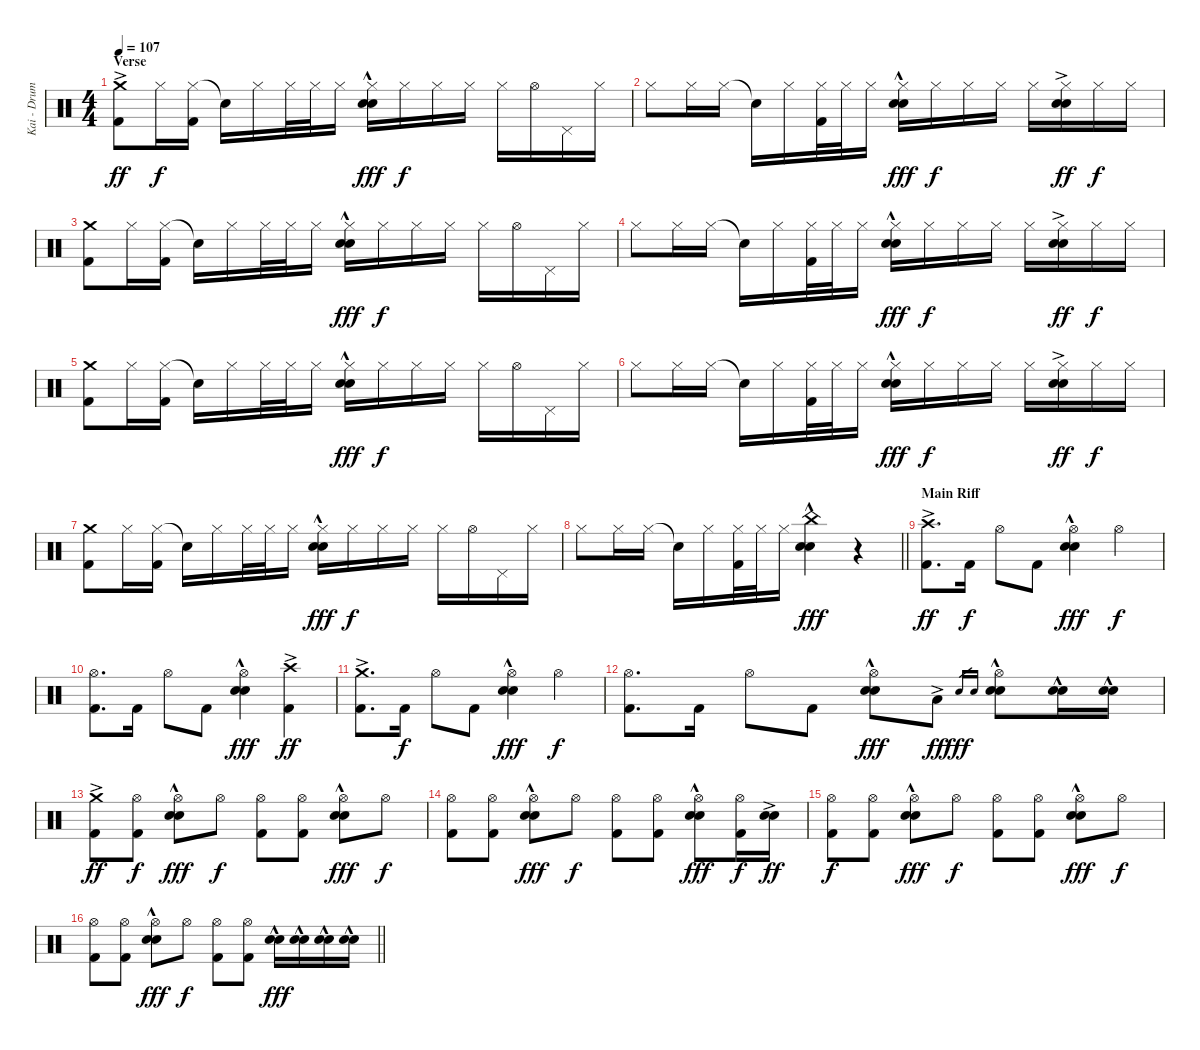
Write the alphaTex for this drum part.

\track ("Kai - Drums" "Kai - Drum") {instrument percussion}
\staff {score}
\articulation defaults
\ts (4 4)
\section ("" "Verse")
\tempo 107
\clef neutral
\ks c
("Crash medium (hit)"{ac} "Kick (hit) 2").8{dy ff} "Hi-Hat (closed)".16{dy f} ("Hi-Hat (closed)" "Kick (hit) 2").16 "Snare (hit)"{t}.16 "Hi-Hat (closed)".16 "Hi-Hat (closed)".32 "Hi-Hat (closed)".32 "Hi-Hat (closed)".16 ("Hi-Hat (closed)" "Electric Snare (hit)"{hac} "Snare (hit) 2"{hac}).16{dy fff} "Hi-Hat (closed)".16{dy f} "Hi-Hat (closed)".16 "Hi-Hat (closed)".16 "Hi-Hat (closed)".16 "Hi-Hat (open)".16 "Pedal Hi-Hat (hit)".16 "Hi-Hat (closed)".16 |
"Hi-Hat (closed)".8 "Hi-Hat (closed)".16 "Hi-Hat (closed)".16 "Snare (hit)"{t}.16 "Hi-Hat (closed)".16 ("Hi-Hat (closed)" "Kick (hit) 2").32 "Hi-Hat (closed)".32 "Hi-Hat (closed)".16 ("Hi-Hat (closed)" "Electric Snare (hit)"{hac} "Snare (hit) 2"{hac}).16{dy fff} "Hi-Hat (closed)".16{dy f} "Hi-Hat (closed)".16 "Hi-Hat (closed)".16 "Hi-Hat (closed)".16 ("Hi-Hat (closed)" "Electric Snare (hit)"{ac} "Snare (hit) 2"{ac}).16{dy ff} "Hi-Hat (closed)".16{dy f} "Hi-Hat (closed)".16 |
("Crash medium (hit)" "Kick (hit) 2").8 "Hi-Hat (closed)".16 ("Hi-Hat (closed)" "Kick (hit) 2").16 "Snare (hit)"{t}.16 "Hi-Hat (closed)".16 "Hi-Hat (closed)".32 "Hi-Hat (closed)".32 "Hi-Hat (closed)".16 ("Hi-Hat (closed)" "Electric Snare (hit)"{hac} "Snare (hit) 2"{hac}).16{dy fff} "Hi-Hat (closed)".16{dy f} "Hi-Hat (closed)".16 "Hi-Hat (closed)".16 "Hi-Hat (closed)".16 "Hi-Hat (open)".16 "Pedal Hi-Hat (hit)".16 "Hi-Hat (closed)".16 |
"Hi-Hat (closed)".8 "Hi-Hat (closed)".16 "Hi-Hat (closed)".16 "Snare (hit)"{t}.16 "Hi-Hat (closed)".16 ("Hi-Hat (closed)" "Kick (hit) 2").32 "Hi-Hat (closed)".32 "Hi-Hat (closed)".16 ("Hi-Hat (closed)" "Electric Snare (hit)"{hac} "Snare (hit) 2"{hac}).16{dy fff} "Hi-Hat (closed)".16{dy f} "Hi-Hat (closed)".16 "Hi-Hat (closed)".16 "Hi-Hat (closed)".16 ("Hi-Hat (closed)" "Electric Snare (hit)"{ac} "Snare (hit) 2"{ac}).16{dy ff} "Hi-Hat (closed)".16{dy f} "Hi-Hat (closed)".16 |
("Crash medium (hit)" "Kick (hit) 2").8 "Hi-Hat (closed)".16 ("Hi-Hat (closed)" "Kick (hit) 2").16 "Snare (hit)"{t}.16 "Hi-Hat (closed)".16 "Hi-Hat (closed)".32 "Hi-Hat (closed)".32 "Hi-Hat (closed)".16 ("Hi-Hat (closed)" "Electric Snare (hit)"{hac} "Snare (hit) 2"{hac}).16{dy fff} "Hi-Hat (closed)".16{dy f} "Hi-Hat (closed)".16 "Hi-Hat (closed)".16 "Hi-Hat (closed)".16 "Hi-Hat (open)".16 "Pedal Hi-Hat (hit)".16 "Hi-Hat (closed)".16 |
"Hi-Hat (closed)".8 "Hi-Hat (closed)".16 "Hi-Hat (closed)".16 "Snare (hit)"{t}.16 "Hi-Hat (closed)".16 ("Hi-Hat (closed)" "Kick (hit) 2").32 "Hi-Hat (closed)".32 "Hi-Hat (closed)".16 ("Hi-Hat (closed)" "Electric Snare (hit)"{hac} "Snare (hit) 2"{hac}).16{dy fff} "Hi-Hat (closed)".16{dy f} "Hi-Hat (closed)".16 "Hi-Hat (closed)".16 "Hi-Hat (closed)".16 ("Hi-Hat (closed)" "Electric Snare (hit)"{ac} "Snare (hit) 2"{ac}).16{dy ff} "Hi-Hat (closed)".16{dy f} "Hi-Hat (closed)".16 |
("Crash medium (hit)" "Kick (hit) 2").8 "Hi-Hat (closed)".16 ("Hi-Hat (closed)" "Kick (hit) 2").16 "Snare (hit)"{t}.16 "Hi-Hat (closed)".16 "Hi-Hat (closed)".32 "Hi-Hat (closed)".32 "Hi-Hat (closed)".16 ("Hi-Hat (closed)" "Electric Snare (hit)"{hac} "Snare (hit) 2"{hac}).16{dy fff} "Hi-Hat (closed)".16{dy f} "Hi-Hat (closed)".16 "Hi-Hat (closed)".16 "Hi-Hat (closed)".16 "Hi-Hat (open)".16 "Pedal Hi-Hat (hit)".16 "Hi-Hat (closed)".16 |
\barLineRight lightlight "Hi-Hat (closed)".8 "Hi-Hat (closed)".16 "Hi-Hat (closed)".16 "Snare (hit)"{t}.16 "Hi-Hat (closed)".16
("Hi-Hat (closed)" "Kick (hit) 2").32 "Hi-Hat (closed)".32 "Hi-Hat (closed)".16 ("China (hit)" "Electric Snare (hit)"{hac} "Snare (hit) 2"{hac}).4{dy fff} r.4 |
\section ("" "Main Riff")
("Crash high (hit)"{ac} "Kick (hit) 2").8{d dy ff} "Kick (hit) 2".16{dy f} "Hi-Hat (open)".8 "Kick (hit) 2".8 ("Hi-Hat (open)" "Electric Snare (hit)"{hac} "Snare (hit) 2"{hac}).4{dy fff} "Hi-Hat (open)".4{dy f} |
("Hi-Hat (open)" "Kick (hit) 2").8{d} "Kick (hit) 2".16 "Hi-Hat (open)".8 "Kick (hit) 2".8 ("Hi-Hat (open)" "Electric Snare (hit)"{hac} "Snare (hit) 2"{hac}).4{dy fff} ("Crash high (hit)"{ac} "Kick (hit) 2").4{dy ff} |
("Crash medium (hit)"{ac} "Kick (hit) 2").8{d} "Kick (hit) 2".16{dy f} "Hi-Hat (open)".8 "Kick (hit) 2".8 ("Hi-Hat (open)" "Electric Snare (hit)"{hac} "Snare (hit) 2"{hac}).4{dy fff} "Hi-Hat (open)".4{dy f} |
("Hi-Hat (open)" "Kick (hit) 2").8{d} "Kick (hit) 2".16 "Hi-Hat (open)".8 "Kick (hit) 2".8 ("Hi-Hat (open)" "Electric Snare (hit)"{hac} "Snare (hit) 2"{hac}).8{dy fff} "Low Tom (hit)"{ac}.8{dy ff} "Electric Snare (hit)".16{gr dy fff} "Snare (hit) 2".16{gr} ("Hi-Hat (open)" "Electric Snare (hit)"{hac} "Snare (hit) 2"{hac}).8 ("Electric Snare (hit)"{hac} "Snare (hit) 2"{hac}).16 ("Electric Snare (hit)"{hac} "Snare (hit) 2"{hac}).16 |
("Crash medium (hit)"{ac} "Kick (hit) 2").8{dy ff} ("Hi-Hat (open)" "Kick (hit) 2").8{dy f} ("Hi-Hat (open)" "Electric Snare (hit)"{hac} "Snare (hit) 2"{hac}).8{dy fff} "Hi-Hat (open)".8{dy f} ("Hi-Hat (open)" "Kick (hit) 2").8 ("Hi-Hat (open)" "Kick (hit) 2").8 ("Hi-Hat (open)" "Electric Snare (hit)"{hac} "Snare (hit) 2"{hac}).8{dy fff} "Hi-Hat (open)".8{dy f} |
("Hi-Hat (open)" "Kick (hit) 2").8 ("Hi-Hat (open)" "Kick (hit) 2").8 ("Hi-Hat (open)" "Electric Snare (hit)"{hac} "Snare (hit) 2"{hac}).8{dy fff} "Hi-Hat (open)".8{dy f} ("Hi-Hat (open)" "Kick (hit) 2").8 ("Hi-Hat (open)" "Kick (hit) 2").8 ("Hi-Hat (open)" "Electric Snare (hit)"{hac} "Snare (hit) 2"{hac}).8{dy fff} ("Hi-Hat (open)" "Kick (hit) 2").16{dy f} ("Electric Snare (hit)"{ac} "Snare (hit) 2"{ac}).16{dy ff} |
("Hi-Hat (open)" "Kick (hit) 2").8{dy f} ("Hi-Hat (open)" "Kick (hit) 2").8 ("Hi-Hat (open)" "Electric Snare (hit)"{hac} "Snare (hit) 2"{hac}).8{dy fff} "Hi-Hat (open)".8{dy f} ("Hi-Hat (open)" "Kick (hit) 2").8 ("Hi-Hat (open)" "Kick (hit) 2").8 ("Hi-Hat (open)" "Electric Snare (hit)"{hac} "Snare (hit) 2"{hac}).8{dy fff} "Hi-Hat (open)".8{dy f} |
\barLineRight lightlight
("Hi-Hat (open)" "Kick (hit) 2").8 ("Hi-Hat (open)" "Kick (hit) 2").8 ("Hi-Hat (open)" "Electric Snare (hit)"{hac} "Snare (hit) 2"{hac}).8{dy fff} "Hi-Hat (open)".8{dy f} ("Hi-Hat (open)" "Kick (hit) 2").8 ("Hi-Hat (open)" "Kick (hit) 2").8 ("Electric Snare (hit)"{hac} "Snare (hit) 2"{hac}).16{dy fff} ("Electric Snare (hit)"{hac} "Snare (hit) 2"{hac}).16 ("Electric Snare (hit)"{hac} "Snare (hit) 2"{hac}).16 ("Electric Snare (hit)"{hac} "Snare (hit) 2"{hac}).16
